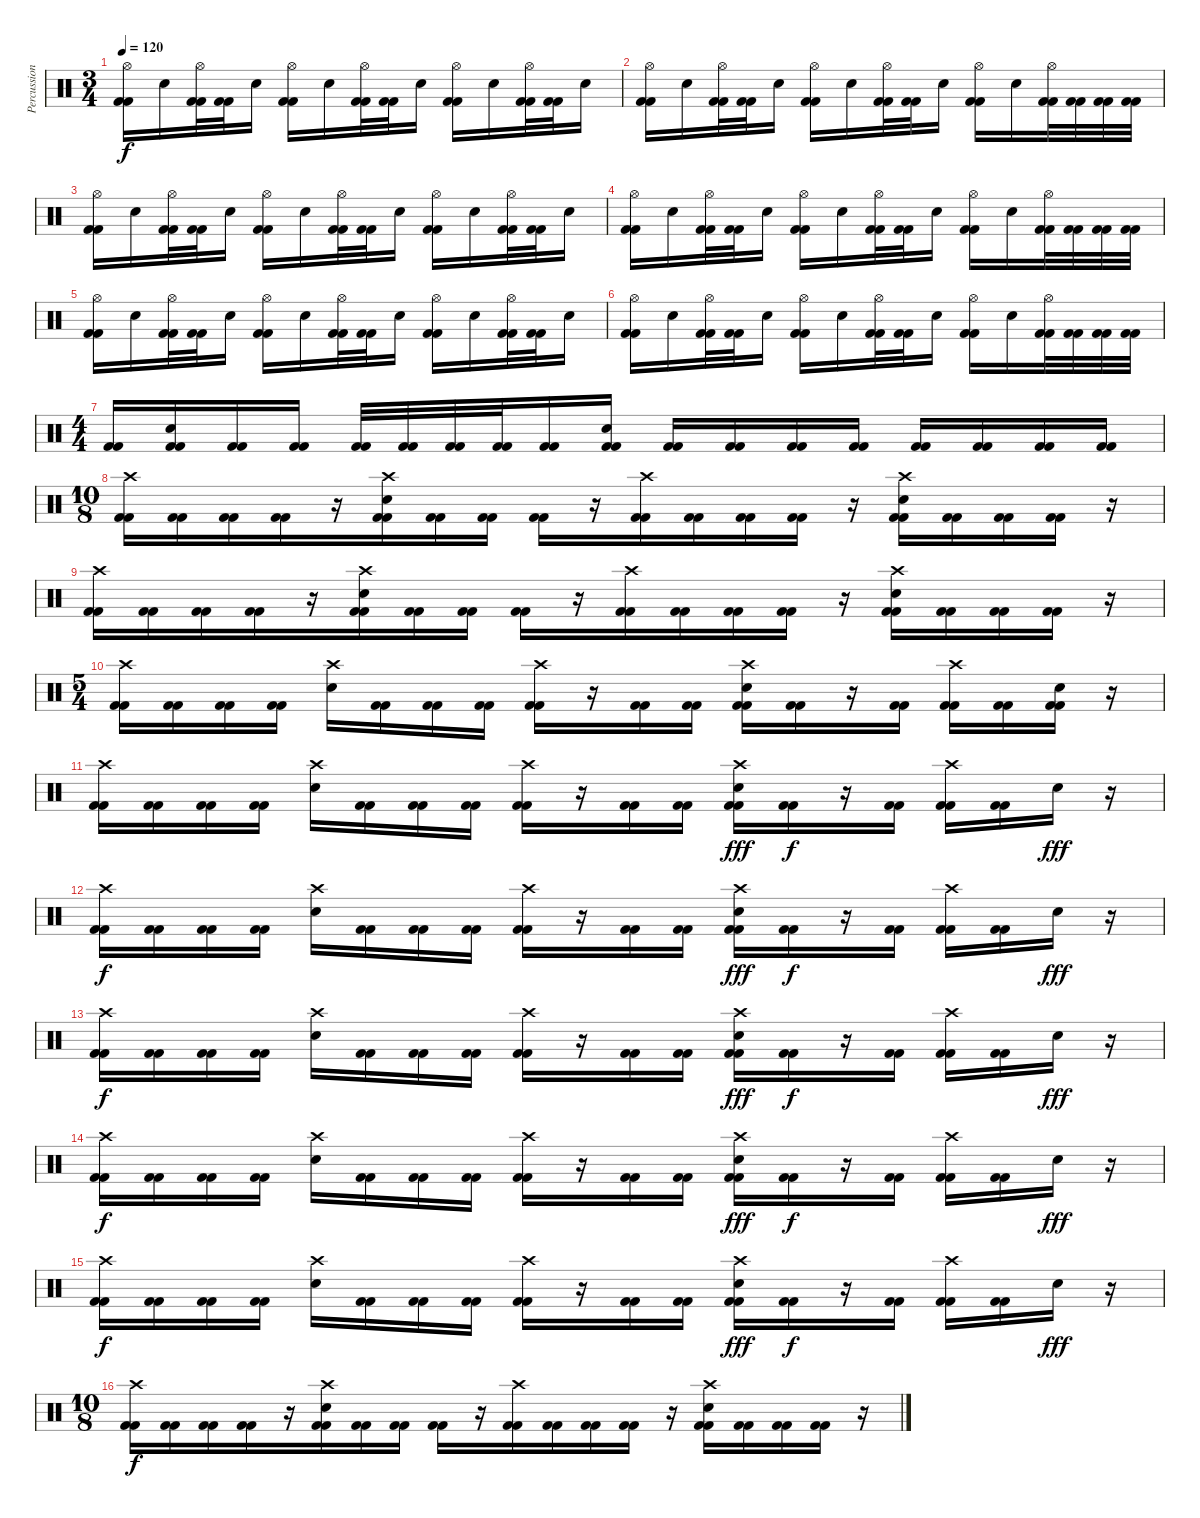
\track ("Percussions" "Percussion") {instrument percussion}
\staff {score}
\articulation defaults
\ts (3 4)
\tempo 120
\clef neutral
\ks c
("Kick (hit) 2" "Kick (hit) 2" "Hi-Hat (open)").16{dy f} "Electric Snare (hit)".16 ("Kick (hit) 2" "Kick (hit) 2" "Hi-Hat (open)").32 ("Kick (hit) 2" "Kick (hit) 2").32 "Electric Snare (hit)".16 ("Kick (hit) 2" "Kick (hit) 2" "Hi-Hat (open)").16 "Electric Snare (hit)".16 ("Kick (hit) 2" "Kick (hit) 2" "Hi-Hat (open)").32 ("Kick (hit) 2" "Kick (hit) 2").32 "Electric Snare (hit)".16 ("Kick (hit) 2" "Kick (hit) 2" "Hi-Hat (open)").16 "Electric Snare (hit)".16 ("Kick (hit) 2" "Kick (hit) 2" "Hi-Hat (open)").32 ("Kick (hit) 2" "Kick (hit) 2").32 "Electric Snare (hit)".16 |
("Kick (hit) 2" "Kick (hit) 2" "Hi-Hat (open)").16 "Electric Snare (hit)".16 ("Kick (hit) 2" "Kick (hit) 2" "Hi-Hat (open)").32 ("Kick (hit) 2" "Kick (hit) 2").32 "Electric Snare (hit)".16 ("Kick (hit) 2" "Kick (hit) 2" "Hi-Hat (open)").16 "Electric Snare (hit)".16 ("Kick (hit) 2" "Kick (hit) 2" "Hi-Hat (open)").32 ("Kick (hit) 2" "Kick (hit) 2").32 "Electric Snare (hit)".16 ("Kick (hit) 2" "Kick (hit) 2" "Hi-Hat (open)").16 "Electric Snare (hit)".16 ("Kick (hit) 2" "Kick (hit) 2" "Hi-Hat (open)").32 ("Kick (hit) 2" "Kick (hit) 2").32 ("Kick (hit) 2" "Kick (hit) 2").32 ("Kick (hit) 2" "Kick (hit) 2").32 |
("Kick (hit) 2" "Kick (hit) 2" "Hi-Hat (open)").16 "Electric Snare (hit)".16 ("Kick (hit) 2" "Kick (hit) 2" "Hi-Hat (open)").32 ("Kick (hit) 2" "Kick (hit) 2").32 "Electric Snare (hit)".16 ("Kick (hit) 2" "Kick (hit) 2" "Hi-Hat (open)").16 "Electric Snare (hit)".16 ("Kick (hit) 2" "Kick (hit) 2" "Hi-Hat (open)").32 ("Kick (hit) 2" "Kick (hit) 2").32 "Electric Snare (hit)".16 ("Kick (hit) 2" "Kick (hit) 2" "Hi-Hat (open)").16 "Electric Snare (hit)".16 ("Kick (hit) 2" "Kick (hit) 2" "Hi-Hat (open)").32 ("Kick (hit) 2" "Kick (hit) 2").32 "Electric Snare (hit)".16 |
("Kick (hit) 2" "Kick (hit) 2" "Hi-Hat (open)").16 "Electric Snare (hit)".16 ("Kick (hit) 2" "Kick (hit) 2" "Hi-Hat (open)").32 ("Kick (hit) 2" "Kick (hit) 2").32 "Electric Snare (hit)".16 ("Kick (hit) 2" "Kick (hit) 2" "Hi-Hat (open)").16 "Electric Snare (hit)".16 ("Kick (hit) 2" "Kick (hit) 2" "Hi-Hat (open)").32 ("Kick (hit) 2" "Kick (hit) 2").32 "Electric Snare (hit)".16 ("Kick (hit) 2" "Kick (hit) 2" "Hi-Hat (open)").16 "Electric Snare (hit)".16 ("Kick (hit) 2" "Kick (hit) 2" "Hi-Hat (open)").32 ("Kick (hit) 2" "Kick (hit) 2").32 ("Kick (hit) 2" "Kick (hit) 2").32 ("Kick (hit) 2" "Kick (hit) 2").32 |
("Kick (hit) 2" "Kick (hit) 2" "Hi-Hat (open)").16 "Electric Snare (hit)".16 ("Kick (hit) 2" "Kick (hit) 2" "Hi-Hat (open)").32 ("Kick (hit) 2" "Kick (hit) 2").32 "Electric Snare (hit)".16 ("Kick (hit) 2" "Kick (hit) 2" "Hi-Hat (open)").16 "Electric Snare (hit)".16 ("Kick (hit) 2" "Kick (hit) 2" "Hi-Hat (open)").32 ("Kick (hit) 2" "Kick (hit) 2").32 "Electric Snare (hit)".16 ("Kick (hit) 2" "Kick (hit) 2" "Hi-Hat (open)").16 "Electric Snare (hit)".16 ("Kick (hit) 2" "Kick (hit) 2" "Hi-Hat (open)").32 ("Kick (hit) 2" "Kick (hit) 2").32 "Electric Snare (hit)".16 |
("Kick (hit) 2" "Kick (hit) 2" "Hi-Hat (open)").16 "Electric Snare (hit)".16 ("Kick (hit) 2" "Kick (hit) 2" "Hi-Hat (open)").32 ("Kick (hit) 2" "Kick (hit) 2").32 "Electric Snare (hit)".16 ("Kick (hit) 2" "Kick (hit) 2" "Hi-Hat (open)").16 "Electric Snare (hit)".16 ("Kick (hit) 2" "Kick (hit) 2" "Hi-Hat (open)").32 ("Kick (hit) 2" "Kick (hit) 2").32 "Electric Snare (hit)".16 ("Kick (hit) 2" "Kick (hit) 2" "Hi-Hat (open)").16 "Electric Snare (hit)".16 ("Kick (hit) 2" "Kick (hit) 2" "Hi-Hat (open)").32 ("Kick (hit) 2" "Kick (hit) 2").32 ("Kick (hit) 2" "Kick (hit) 2").32 ("Kick (hit) 2" "Kick (hit) 2").32 |
\ts (4 4)
("Kick (hit) 2" "Kick (hit) 2").16 ("Kick (hit) 2" "Kick (hit) 2" "Electric Snare (hit)").16 ("Kick (hit) 2" "Kick (hit) 2").16 ("Kick (hit) 2" "Kick (hit) 2").16 ("Kick (hit) 2" "Kick (hit) 2").32 ("Kick (hit) 2" "Kick (hit) 2").32 ("Kick (hit) 2" "Kick (hit) 2").32 ("Kick (hit) 2" "Kick (hit) 2").32 ("Kick (hit) 2" "Kick (hit) 2").16 ("Kick (hit) 2" "Kick (hit) 2" "Electric Snare (hit)").16 ("Kick (hit) 2" "Kick (hit) 2").16 ("Kick (hit) 2" "Kick (hit) 2").16 ("Kick (hit) 2" "Kick (hit) 2").16 ("Kick (hit) 2" "Kick (hit) 2").16 ("Kick (hit) 2" "Kick (hit) 2").16 ("Kick (hit) 2" "Kick (hit) 2").16 ("Kick (hit) 2" "Kick (hit) 2").16 ("Kick (hit) 2" "Kick (hit) 2").16 |
\ts (10 8)
("Kick (hit) 2" "Kick (hit) 2" "Crash high (hit)").16 ("Kick (hit) 2" "Kick (hit) 2").16 ("Kick (hit) 2" "Kick (hit) 2").16 ("Kick (hit) 2" "Kick (hit) 2").16 r.16 ("Kick (hit) 2" "Kick (hit) 2" "Electric Snare (hit)" "Crash high (hit)").16 ("Kick (hit) 2" "Kick (hit) 2").16 ("Kick (hit) 2" "Kick (hit) 2").16 ("Kick (hit) 2" "Kick (hit) 2").16 r.16 ("Kick (hit) 2" "Kick (hit) 2" "Crash high (hit)").16 ("Kick (hit) 2" "Kick (hit) 2").16 ("Kick (hit) 2" "Kick (hit) 2").16 ("Kick (hit) 2" "Kick (hit) 2").16 r.16 ("Kick (hit) 2" "Kick (hit) 2" "Electric Snare (hit)" "Crash high (hit)").16 ("Kick (hit) 2" "Kick (hit) 2").16 ("Kick (hit) 2" "Kick (hit) 2").16 ("Kick (hit) 2" "Kick (hit) 2").16 r.16 |
("Kick (hit) 2" "Kick (hit) 2" "Crash high (hit)").16 ("Kick (hit) 2" "Kick (hit) 2").16 ("Kick (hit) 2" "Kick (hit) 2").16 ("Kick (hit) 2" "Kick (hit) 2").16 r.16 ("Kick (hit) 2" "Kick (hit) 2" "Electric Snare (hit)" "Crash high (hit)").16 ("Kick (hit) 2" "Kick (hit) 2").16 ("Kick (hit) 2" "Kick (hit) 2").16 ("Kick (hit) 2" "Kick (hit) 2").16 r.16 ("Kick (hit) 2" "Kick (hit) 2" "Crash high (hit)").16 ("Kick (hit) 2" "Kick (hit) 2").16 ("Kick (hit) 2" "Kick (hit) 2").16 ("Kick (hit) 2" "Kick (hit) 2").16 r.16 ("Kick (hit) 2" "Kick (hit) 2" "Electric Snare (hit)" "Crash high (hit)").16 ("Kick (hit) 2" "Kick (hit) 2").16 ("Kick (hit) 2" "Kick (hit) 2").16 ("Kick (hit) 2" "Kick (hit) 2").16 r.16 |
\ts (5 4)
("Kick (hit) 2" "Kick (hit) 2" "Crash high (hit)").16 ("Kick (hit) 2" "Kick (hit) 2").16 ("Kick (hit) 2" "Kick (hit) 2").16 ("Kick (hit) 2" "Kick (hit) 2").16 ("Electric Snare (hit)" "Crash high (hit)").16 ("Kick (hit) 2" "Kick (hit) 2").16 ("Kick (hit) 2" "Kick (hit) 2").16 ("Kick (hit) 2" "Kick (hit) 2").16 ("Kick (hit) 2" "Kick (hit) 2" "Crash high (hit)").16 r.16 ("Kick (hit) 2" "Kick (hit) 2").16 ("Kick (hit) 2" "Kick (hit) 2").16 ("Kick (hit) 2" "Kick (hit) 2" "Electric Snare (hit)" "Crash high (hit)").16 ("Kick (hit) 2" "Kick (hit) 2").16 r.16 ("Kick (hit) 2" "Kick (hit) 2").16 ("Kick (hit) 2" "Kick (hit) 2" "Crash high (hit)").16 ("Kick (hit) 2" "Kick (hit) 2").16 ("Kick (hit) 2" "Kick (hit) 2" "Electric Snare (hit)").16 r.16 |
("Kick (hit) 2" "Kick (hit) 2" "Crash high (hit)").16 ("Kick (hit) 2" "Kick (hit) 2").16 ("Kick (hit) 2" "Kick (hit) 2").16 ("Kick (hit) 2" "Kick (hit) 2").16 ("Electric Snare (hit)" "Crash high (hit)").16 ("Kick (hit) 2" "Kick (hit) 2").16 ("Kick (hit) 2" "Kick (hit) 2").16 ("Kick (hit) 2" "Kick (hit) 2").16 ("Kick (hit) 2" "Kick (hit) 2" "Crash high (hit)").16 r.16 ("Kick (hit) 2" "Kick (hit) 2").16 ("Kick (hit) 2" "Kick (hit) 2").16 ("Kick (hit) 2" "Kick (hit) 2" "Electric Snare (hit)" "Crash high (hit)").16{dy fff} ("Kick (hit) 2" "Kick (hit) 2").16{dy f} r.16 ("Kick (hit) 2" "Kick (hit) 2").16 ("Kick (hit) 2" "Kick (hit) 2" "Crash high (hit)").16 ("Kick (hit) 2" "Kick (hit) 2").16 "Electric Snare (hit)".16{dy fff} r.16 |
("Kick (hit) 2" "Kick (hit) 2" "Crash high (hit)").16{dy f} ("Kick (hit) 2" "Kick (hit) 2").16 ("Kick (hit) 2" "Kick (hit) 2").16 ("Kick (hit) 2" "Kick (hit) 2").16 ("Electric Snare (hit)" "Crash high (hit)").16 ("Kick (hit) 2" "Kick (hit) 2").16 ("Kick (hit) 2" "Kick (hit) 2").16 ("Kick (hit) 2" "Kick (hit) 2").16 ("Kick (hit) 2" "Kick (hit) 2" "Crash high (hit)").16 r.16 ("Kick (hit) 2" "Kick (hit) 2").16 ("Kick (hit) 2" "Kick (hit) 2").16 ("Kick (hit) 2" "Kick (hit) 2" "Electric Snare (hit)" "Crash high (hit)").16{dy fff} ("Kick (hit) 2" "Kick (hit) 2").16{dy f} r.16 ("Kick (hit) 2" "Kick (hit) 2").16 ("Kick (hit) 2" "Kick (hit) 2" "Crash high (hit)").16 ("Kick (hit) 2" "Kick (hit) 2").16 "Electric Snare (hit)".16{dy fff} r.16 |
("Kick (hit) 2" "Kick (hit) 2" "Crash high (hit)").16{dy f} ("Kick (hit) 2" "Kick (hit) 2").16 ("Kick (hit) 2" "Kick (hit) 2").16 ("Kick (hit) 2" "Kick (hit) 2").16 ("Electric Snare (hit)" "Crash high (hit)").16 ("Kick (hit) 2" "Kick (hit) 2").16 ("Kick (hit) 2" "Kick (hit) 2").16 ("Kick (hit) 2" "Kick (hit) 2").16 ("Kick (hit) 2" "Kick (hit) 2" "Crash high (hit)").16 r.16 ("Kick (hit) 2" "Kick (hit) 2").16 ("Kick (hit) 2" "Kick (hit) 2").16 ("Kick (hit) 2" "Kick (hit) 2" "Electric Snare (hit)" "Crash high (hit)").16{dy fff} ("Kick (hit) 2" "Kick (hit) 2").16{dy f} r.16 ("Kick (hit) 2" "Kick (hit) 2").16 ("Kick (hit) 2" "Kick (hit) 2" "Crash high (hit)").16 ("Kick (hit) 2" "Kick (hit) 2").16 "Electric Snare (hit)".16{dy fff} r.16 |
("Kick (hit) 2" "Kick (hit) 2" "Crash high (hit)").16{dy f} ("Kick (hit) 2" "Kick (hit) 2").16 ("Kick (hit) 2" "Kick (hit) 2").16 ("Kick (hit) 2" "Kick (hit) 2").16 ("Electric Snare (hit)" "Crash high (hit)").16 ("Kick (hit) 2" "Kick (hit) 2").16 ("Kick (hit) 2" "Kick (hit) 2").16 ("Kick (hit) 2" "Kick (hit) 2").16 ("Kick (hit) 2" "Kick (hit) 2" "Crash high (hit)").16 r.16 ("Kick (hit) 2" "Kick (hit) 2").16 ("Kick (hit) 2" "Kick (hit) 2").16 ("Kick (hit) 2" "Kick (hit) 2" "Electric Snare (hit)" "Crash high (hit)").16{dy fff} ("Kick (hit) 2" "Kick (hit) 2").16{dy f} r.16 ("Kick (hit) 2" "Kick (hit) 2").16 ("Kick (hit) 2" "Kick (hit) 2" "Crash high (hit)").16 ("Kick (hit) 2" "Kick (hit) 2").16 "Electric Snare (hit)".16{dy fff} r.16 |
("Kick (hit) 2" "Kick (hit) 2" "Crash high (hit)").16{dy f} ("Kick (hit) 2" "Kick (hit) 2").16 ("Kick (hit) 2" "Kick (hit) 2").16 ("Kick (hit) 2" "Kick (hit) 2").16 ("Electric Snare (hit)" "Crash high (hit)").16 ("Kick (hit) 2" "Kick (hit) 2").16 ("Kick (hit) 2" "Kick (hit) 2").16 ("Kick (hit) 2" "Kick (hit) 2").16 ("Kick (hit) 2" "Kick (hit) 2" "Crash high (hit)").16 r.16 ("Kick (hit) 2" "Kick (hit) 2").16 ("Kick (hit) 2" "Kick (hit) 2").16 ("Kick (hit) 2" "Kick (hit) 2" "Electric Snare (hit)" "Crash high (hit)").16{dy fff} ("Kick (hit) 2" "Kick (hit) 2").16{dy f} r.16 ("Kick (hit) 2" "Kick (hit) 2").16 ("Kick (hit) 2" "Kick (hit) 2" "Crash high (hit)").16 ("Kick (hit) 2" "Kick (hit) 2").16 "Electric Snare (hit)".16{dy fff} r.16 |
\ts (10 8)
("Kick (hit) 2" "Kick (hit) 2" "Crash high (hit)").16{dy f} ("Kick (hit) 2" "Kick (hit) 2").16 ("Kick (hit) 2" "Kick (hit) 2").16 ("Kick (hit) 2" "Kick (hit) 2").16 r.16 ("Kick (hit) 2" "Kick (hit) 2" "Electric Snare (hit)" "Crash high (hit)").16 ("Kick (hit) 2" "Kick (hit) 2").16 ("Kick (hit) 2" "Kick (hit) 2").16 ("Kick (hit) 2" "Kick (hit) 2").16 r.16 ("Kick (hit) 2" "Kick (hit) 2" "Crash high (hit)").16 ("Kick (hit) 2" "Kick (hit) 2").16 ("Kick (hit) 2" "Kick (hit) 2").16 ("Kick (hit) 2" "Kick (hit) 2").16 r.16 ("Kick (hit) 2" "Kick (hit) 2" "Electric Snare (hit)" "Crash high (hit)").16 ("Kick (hit) 2" "Kick (hit) 2").16 ("Kick (hit) 2" "Kick (hit) 2").16 ("Kick (hit) 2" "Kick (hit) 2").16 r.16
